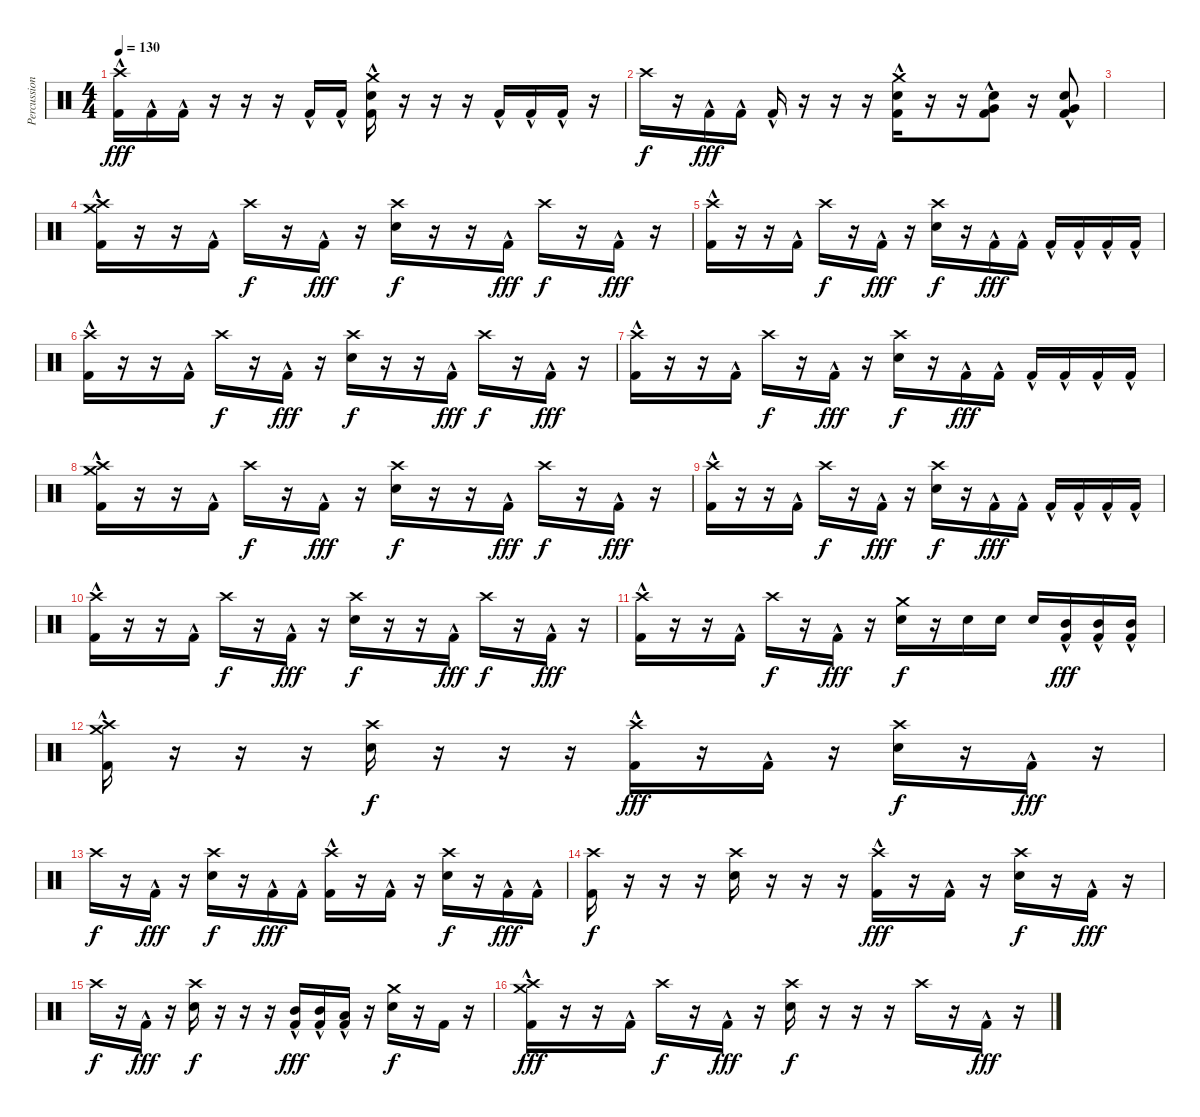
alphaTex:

\track ("Percussion" "Percussion") {instrument percussion}
\staff {score}
\articulation defaults
\ts (4 4)
\tempo 130
\clef neutral
\ks c
("Kick (hit) 2"{hac} "Crash high (hit)").16{dy fff} "Kick (hit) 2"{hac}.16 "Kick (hit) 2"{hac}.16 r.16 r.16 r.16 "Kick (hit) 2"{hac}.16 "Kick (hit) 2"{hac}.16 ("Kick (hit) 2"{hac} "Electric Snare (hit)" "Crash medium (hit)").16 r.16 r.16 r.16 "Kick (hit) 2"{hac}.16 "Kick (hit) 2"{hac}.16 "Kick (hit) 2"{hac}.16 r.16 |
"Crash high (hit)".16{dy f} r.16 "Kick (hit) 2"{hac}.16{dy fff} "Kick (hit) 2"{hac}.16 "Kick (hit) 2"{hac}.16 r.16 r.16 r.16 ("Kick (hit) 2"{hac} "Electric Snare (hit)" "Crash medium (hit)").16 r.16 r.16 ("Very Low Tom (hit)" "Kick (hit) 2"{hac} "Electric Snare (hit)").8 r.16 ("Very Low Tom (hit)" "Kick (hit) 2"{hac} "Electric Snare (hit)").8 |
|
("Kick (hit) 2"{hac} "Crash medium (hit)" "Crash high (hit)").16 r.16 r.16 "Kick (hit) 2"{hac}.16 "Crash high (hit)".16{dy f} r.16 "Kick (hit) 2"{hac}.16{dy fff} r.16 ("Electric Snare (hit)" "Crash high (hit)").16{dy f} r.16 r.16 "Kick (hit) 2"{hac}.16{dy fff} "Crash high (hit)".16{dy f} r.16 "Kick (hit) 2"{hac}.16{dy fff} r.16 |
("Kick (hit) 2"{hac} "Crash high (hit)").16 r.16 r.16 "Kick (hit) 2"{hac}.16 "Crash high (hit)".16{dy f} r.16 "Kick (hit) 2"{hac}.16{dy fff} r.16 ("Electric Snare (hit)" "Crash high (hit)").16{dy f} r.16 "Kick (hit) 2"{hac}.16{dy fff} "Kick (hit) 2"{hac}.16 "Kick (hit) 2"{hac}.16 "Kick (hit) 2"{hac}.16 "Kick (hit) 2"{hac}.16 "Kick (hit) 2"{hac}.16 |
("Kick (hit) 2"{hac} "Crash high (hit)").16 r.16 r.16 "Kick (hit) 2"{hac}.16 "Crash high (hit)".16{dy f} r.16 "Kick (hit) 2"{hac}.16{dy fff} r.16 ("Electric Snare (hit)" "Crash high (hit)").16{dy f} r.16 r.16 "Kick (hit) 2"{hac}.16{dy fff} "Crash high (hit)".16{dy f} r.16 "Kick (hit) 2"{hac}.16{dy fff} r.16 |
("Kick (hit) 2"{hac} "Crash high (hit)").16 r.16 r.16 "Kick (hit) 2"{hac}.16 "Crash high (hit)".16{dy f} r.16 "Kick (hit) 2"{hac}.16{dy fff} r.16 ("Electric Snare (hit)" "Crash high (hit)").16{dy f} r.16 "Kick (hit) 2"{hac}.16{dy fff} "Kick (hit) 2"{hac}.16 "Kick (hit) 2"{hac}.16 "Kick (hit) 2"{hac}.16 "Kick (hit) 2"{hac}.16 "Kick (hit) 2"{hac}.16 |
("Kick (hit) 2"{hac} "Crash medium (hit)" "Crash high (hit)").16 r.16 r.16 "Kick (hit) 2"{hac}.16 "Crash high (hit)".16{dy f} r.16 "Kick (hit) 2"{hac}.16{dy fff} r.16 ("Electric Snare (hit)" "Crash high (hit)").16{dy f} r.16 r.16 "Kick (hit) 2"{hac}.16{dy fff} "Crash high (hit)".16{dy f} r.16 "Kick (hit) 2"{hac}.16{dy fff} r.16 |
("Kick (hit) 2"{hac} "Crash high (hit)").16 r.16 r.16 "Kick (hit) 2"{hac}.16 "Crash high (hit)".16{dy f} r.16 "Kick (hit) 2"{hac}.16{dy fff} r.16 ("Electric Snare (hit)" "Crash high (hit)").16{dy f} r.16 "Kick (hit) 2"{hac}.16{dy fff} "Kick (hit) 2"{hac}.16 "Kick (hit) 2"{hac}.16 "Kick (hit) 2"{hac}.16 "Kick (hit) 2"{hac}.16 "Kick (hit) 2"{hac}.16 |
("Kick (hit) 2"{hac} "Crash high (hit)").16 r.16 r.16 "Kick (hit) 2"{hac}.16 "Crash high (hit)".16{dy f} r.16 "Kick (hit) 2"{hac}.16{dy fff} r.16 ("Electric Snare (hit)" "Crash high (hit)").16{dy f} r.16 r.16 "Kick (hit) 2"{hac}.16{dy fff} "Crash high (hit)".16{dy f} r.16 "Kick (hit) 2"{hac}.16{dy fff} r.16 |
("Kick (hit) 2"{hac} "Crash high (hit)").16 r.16 r.16 "Kick (hit) 2"{hac}.16 "Crash high (hit)".16{dy f} r.16 "Kick (hit) 2"{hac}.16{dy fff} r.16 ("Electric Snare (hit)" "Crash medium (hit)").16{dy f} r.16 "Electric Snare (hit)".16 "Electric Snare (hit)".16 "Electric Snare (hit)".16 ("Kick (hit) 2"{hac} "Mid Tom (hit)").16{dy fff} ("Kick (hit) 2"{hac} "Mid Tom (hit)").16 ("Kick (hit) 2"{hac} "Mid Tom (hit)").16 |
("Kick (hit) 2"{hac} "Crash medium (hit)" "Crash high (hit)").16 r.16 r.16 r.16 ("Electric Snare (hit)" "Crash high (hit)").16{dy f} r.16 r.16 r.16 ("Kick (hit) 2"{hac} "Crash high (hit)").16{dy fff} r.16 "Kick (hit) 2"{hac}.16 r.16 ("Electric Snare (hit)" "Crash high (hit)").16{dy f} r.16 "Kick (hit) 2"{hac}.16{dy fff} r.16 |
"Crash high (hit)".16{dy f} r.16 "Kick (hit) 2"{hac}.16{dy fff} r.16 ("Electric Snare (hit)" "Crash high (hit)").16{dy f} r.16 "Kick (hit) 2"{hac}.16{dy fff} "Kick (hit) 2"{hac}.16 ("Kick (hit) 2"{hac} "Crash high (hit)").16 r.16 "Kick (hit) 2"{hac}.16 r.16 ("Electric Snare (hit)" "Crash high (hit)").16{dy f} r.16 "Kick (hit) 2"{hac}.16{dy fff} "Kick (hit) 2"{hac}.16 |
("Kick (hit) 2" "Crash high (hit)").16{dy f} r.16 r.16 r.16 ("Electric Snare (hit)" "Crash high (hit)").16 r.16 r.16 r.16 ("Kick (hit) 2"{hac} "Crash high (hit)").16{dy fff} r.16 "Kick (hit) 2"{hac}.16 r.16 ("Electric Snare (hit)" "Crash high (hit)").16{dy f} r.16 "Kick (hit) 2"{hac}.16{dy fff} r.16 |
"Crash high (hit)".16{dy f} r.16 "Kick (hit) 2"{hac}.16{dy fff} r.16 ("Electric Snare (hit)" "Crash high (hit)").16{dy f} r.16 r.16 r.16 ("Kick (hit) 2"{hac} "Mid Tom (hit)").16{dy fff} ("Kick (hit) 2"{hac} "Mid Tom (hit)").16 ("Kick (hit) 2"{hac} "Low Tom (hit)").16 r.16 ("Electric Snare (hit)" "Crash medium (hit)").16{dy f} r.16 "Kick (hit) 2".16 r.16 |
("Kick (hit) 2"{hac} "Crash medium (hit)" "Crash high (hit)").16{dy fff} r.16 r.16 "Kick (hit) 2"{hac}.16 "Crash high (hit)".16{dy f} r.16 "Kick (hit) 2"{hac}.16{dy fff} r.16 ("Electric Snare (hit)" "Crash high (hit)").16{dy f} r.16 r.16 r.16 "Crash high (hit)".16 r.16 "Kick (hit) 2"{hac}.16{dy fff} r.16
